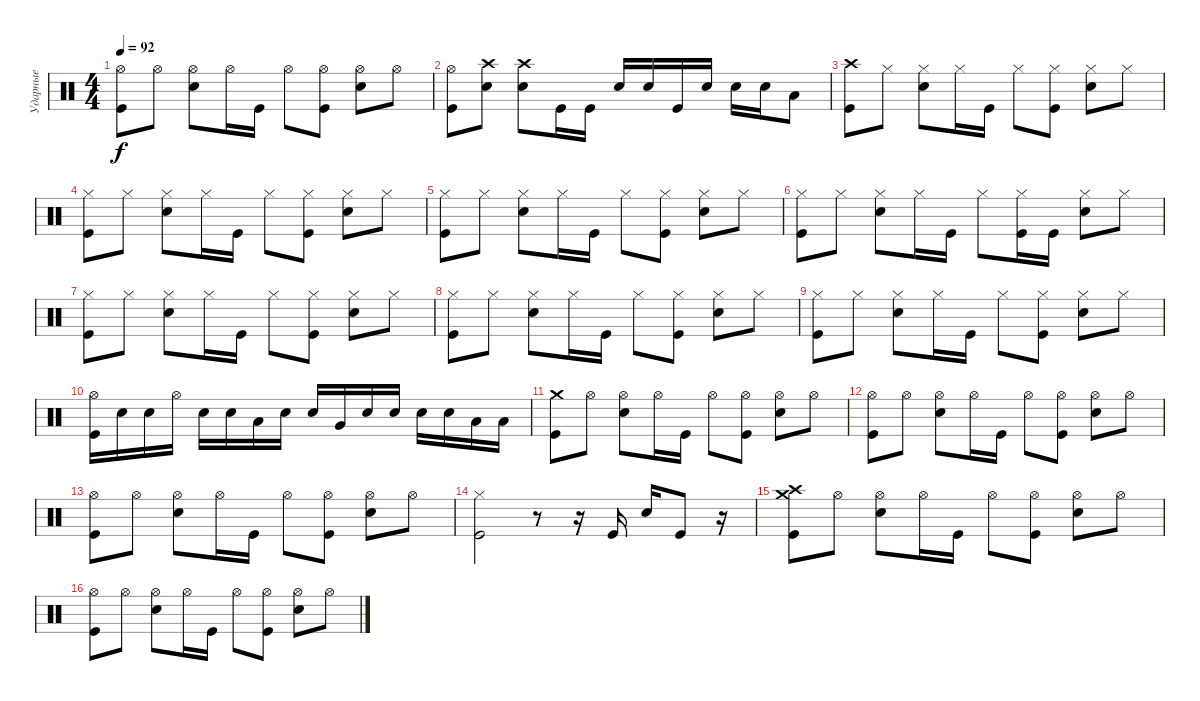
\track ("Ударные" "Ударные") {instrument percussion}
\staff {score}
\articulation defaults
\ts (4 4)
\tempo 92
\clef neutral
\ks c
("Kick (hit)" "Hi-Hat (open)").8{dy f} "Hi-Hat (open)".8 ("Hi-Hat (open)" "Snare (hit) 2").8 "Hi-Hat (open)".16 "Kick (hit)".16 "Hi-Hat (open)".8 ("Kick (hit)" "Hi-Hat (open)").8 ("Hi-Hat (open)" "Snare (hit) 2").8 "Hi-Hat (open)".8 |
("Kick (hit)" "Hi-Hat (open)").8 ("Crash high (hit)" "Snare (hit) 2").8 ("Crash high (hit)" "Snare (hit) 2").8 "Kick (hit)".16 "Kick (hit)".16 "Snare (hit) 2".16 "Snare (hit) 2".16 "Kick (hit)".16 "Snare (hit) 2".16 "Snare (hit) 2".16 "Snare (hit) 2".16 "Low Tom (hit)".8 |
("Kick (hit)" "Crash high (hit)").8 "Hi-Hat (closed)".8 ("Hi-Hat (closed)" "Snare (hit) 2").8 "Hi-Hat (closed)".16 "Kick (hit)".16 "Hi-Hat (closed)".8 ("Kick (hit)" "Hi-Hat (closed)").8 ("Hi-Hat (closed)" "Snare (hit) 2").8 "Hi-Hat (closed)".8 |
("Kick (hit)" "Hi-Hat (closed)").8 "Hi-Hat (closed)".8 ("Hi-Hat (closed)" "Snare (hit) 2").8 "Hi-Hat (closed)".16 "Kick (hit)".16 "Hi-Hat (closed)".8 ("Kick (hit)" "Hi-Hat (closed)").8 ("Hi-Hat (closed)" "Snare (hit) 2").8 "Hi-Hat (closed)".8 |
("Kick (hit)" "Hi-Hat (closed)").8 "Hi-Hat (closed)".8 ("Hi-Hat (closed)" "Snare (hit) 2").8 "Hi-Hat (closed)".16 "Kick (hit)".16 "Hi-Hat (closed)".8 ("Kick (hit)" "Hi-Hat (closed)").8 ("Hi-Hat (closed)" "Snare (hit) 2").8 "Hi-Hat (closed)".8 |
("Kick (hit)" "Hi-Hat (closed)").8 "Hi-Hat (closed)".8 ("Hi-Hat (closed)" "Snare (hit) 2").8 "Hi-Hat (closed)".16 "Kick (hit)".16 "Hi-Hat (closed)".8 ("Kick (hit)" "Hi-Hat (closed)").16 "Kick (hit)".16 ("Hi-Hat (closed)" "Snare (hit) 2").8 "Hi-Hat (closed)".8 |
("Kick (hit)" "Hi-Hat (closed)").8 "Hi-Hat (closed)".8 ("Hi-Hat (closed)" "Snare (hit) 2").8 "Hi-Hat (closed)".16 "Kick (hit)".16 "Hi-Hat (closed)".8 ("Kick (hit)" "Hi-Hat (closed)").8 ("Hi-Hat (closed)" "Snare (hit) 2").8 "Hi-Hat (closed)".8 |
("Kick (hit)" "Hi-Hat (closed)").8 "Hi-Hat (closed)".8 ("Hi-Hat (closed)" "Snare (hit) 2").8 "Hi-Hat (closed)".16 "Kick (hit)".16 "Hi-Hat (closed)".8 ("Kick (hit)" "Hi-Hat (closed)").8 ("Hi-Hat (closed)" "Snare (hit) 2").8 "Hi-Hat (closed)".8 |
("Kick (hit)" "Hi-Hat (closed)").8 "Hi-Hat (closed)".8 ("Hi-Hat (closed)" "Snare (hit) 2").8 "Hi-Hat (closed)".16 "Kick (hit)".16 "Hi-Hat (closed)".8 ("Kick (hit)" "Hi-Hat (closed)").8 ("Hi-Hat (closed)" "Snare (hit) 2").8 "Hi-Hat (closed)".8 |
("Kick (hit)" "Hi-Hat (open)").16 "Snare (hit) 2".16 "Snare (hit) 2".16 "Hi-Hat (open)".16 "Snare (hit) 2".16 "Snare (hit) 2".16 "Low Floor Tom (hit)".16 "Snare (hit) 2".16 "Snare (hit) 2".16 "Very Low Tom (hit)".16 "Snare (hit) 2".16 "Snare (hit) 2".16 "Snare (hit) 2".16 "Snare (hit) 2".16 "Low Floor Tom (hit)".16 "Low Tom (hit)".16 |
("Kick (hit)" "Crash medium (hit)").8 "Hi-Hat (open)".8 ("Hi-Hat (open)" "Snare (hit) 2").8 "Hi-Hat (open)".16 "Kick (hit)".16 "Hi-Hat (open)".8 ("Kick (hit)" "Hi-Hat (open)").8 ("Hi-Hat (open)" "Snare (hit) 2").8 "Hi-Hat (open)".8 |
("Kick (hit)" "Hi-Hat (open)").8 "Hi-Hat (open)".8 ("Hi-Hat (open)" "Snare (hit) 2").8 "Hi-Hat (open)".16 "Kick (hit)".16 "Hi-Hat (open)".8 ("Kick (hit)" "Hi-Hat (open)").8 ("Hi-Hat (open)" "Snare (hit) 2").8 "Hi-Hat (open)".8 |
("Kick (hit)" "Hi-Hat (open)").8 "Hi-Hat (open)".8 ("Hi-Hat (open)" "Snare (hit) 2").8 "Hi-Hat (open)".16 "Kick (hit)".16 "Hi-Hat (open)".8 ("Kick (hit)" "Hi-Hat (open)").8 ("Hi-Hat (open)" "Snare (hit) 2").8 "Hi-Hat (open)".8 |
("Kick (hit)" "Hi-Hat (closed)").2 r.8 r.16 "Kick (hit)".16 "Snare (hit) 2".16 "Kick (hit)".8 r.16 |
("Kick (hit)" "Crash high (hit)" "Crash medium (hit)").8 "Hi-Hat (open)".8 ("Hi-Hat (open)" "Snare (hit) 2").8 "Hi-Hat (open)".16 "Kick (hit)".16 "Hi-Hat (open)".8 ("Kick (hit)" "Hi-Hat (open)").8 ("Hi-Hat (open)" "Snare (hit) 2").8 "Hi-Hat (open)".8 |
("Kick (hit)" "Hi-Hat (open)").8 "Hi-Hat (open)".8 ("Hi-Hat (open)" "Snare (hit) 2").8 "Hi-Hat (open)".16 "Kick (hit)".16 "Hi-Hat (open)".8 ("Kick (hit)" "Hi-Hat (open)").8 ("Hi-Hat (open)" "Snare (hit) 2").8 "Hi-Hat (open)".8
